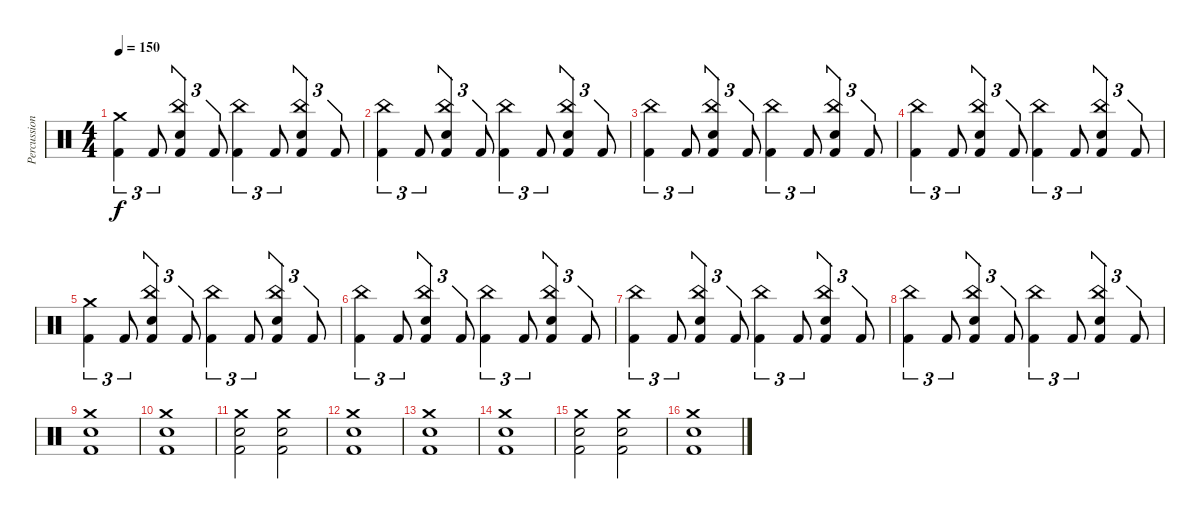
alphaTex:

\track ("Percussion" "Percussion") {instrument percussion}
\staff {score}
\articulation defaults
\ts (4 4)
\tempo 150
\clef neutral
\ks c
("Crash medium (hit)" "Kick (hit) 2").4{tu (3 2) dy f} "Kick (hit) 2".8{tu (3 2)} ("China (hit)" "Electric Snare (hit)" "Kick (hit) 2").4{tu (3 2)} "Kick (hit) 2".8{tu (3 2)} ("China (hit)" "Kick (hit) 2").4{tu (3 2)} "Kick (hit) 2".8{tu (3 2)} ("China (hit)" "Electric Snare (hit)" "Kick (hit) 2").4{tu (3 2)} "Kick (hit) 2".8{tu (3 2)} |
("China (hit)" "Kick (hit) 2").4{tu (3 2)} "Kick (hit) 2".8{tu (3 2)} ("China (hit)" "Electric Snare (hit)" "Kick (hit) 2").4{tu (3 2)} "Kick (hit) 2".8{tu (3 2)} ("China (hit)" "Kick (hit) 2").4{tu (3 2)} "Kick (hit) 2".8{tu (3 2)} ("China (hit)" "Electric Snare (hit)" "Kick (hit) 2").4{tu (3 2)} "Kick (hit) 2".8{tu (3 2)} |
("China (hit)" "Kick (hit) 2").4{tu (3 2)} "Kick (hit) 2".8{tu (3 2)} ("China (hit)" "Electric Snare (hit)" "Kick (hit) 2").4{tu (3 2)} "Kick (hit) 2".8{tu (3 2)} ("China (hit)" "Kick (hit) 2").4{tu (3 2)} "Kick (hit) 2".8{tu (3 2)} ("China (hit)" "Electric Snare (hit)" "Kick (hit) 2").4{tu (3 2)} "Kick (hit) 2".8{tu (3 2)} |
("China (hit)" "Kick (hit) 2").4{tu (3 2)} "Kick (hit) 2".8{tu (3 2)} ("China (hit)" "Electric Snare (hit)" "Kick (hit) 2").4{tu (3 2)} "Kick (hit) 2".8{tu (3 2)} ("China (hit)" "Kick (hit) 2").4{tu (3 2)} "Kick (hit) 2".8{tu (3 2)} ("China (hit)" "Electric Snare (hit)" "Kick (hit) 2").4{tu (3 2)} "Kick (hit) 2".8{tu (3 2)} |
("Crash medium (hit)" "Kick (hit) 2").4{tu (3 2)} "Kick (hit) 2".8{tu (3 2)} ("China (hit)" "Electric Snare (hit)" "Kick (hit) 2").4{tu (3 2)} "Kick (hit) 2".8{tu (3 2)} ("China (hit)" "Kick (hit) 2").4{tu (3 2)} "Kick (hit) 2".8{tu (3 2)} ("China (hit)" "Electric Snare (hit)" "Kick (hit) 2").4{tu (3 2)} "Kick (hit) 2".8{tu (3 2)} |
("China (hit)" "Kick (hit) 2").4{tu (3 2)} "Kick (hit) 2".8{tu (3 2)} ("China (hit)" "Electric Snare (hit)" "Kick (hit) 2").4{tu (3 2)} "Kick (hit) 2".8{tu (3 2)} ("China (hit)" "Kick (hit) 2").4{tu (3 2)} "Kick (hit) 2".8{tu (3 2)} ("China (hit)" "Electric Snare (hit)" "Kick (hit) 2").4{tu (3 2)} "Kick (hit) 2".8{tu (3 2)} |
("China (hit)" "Kick (hit) 2").4{tu (3 2)} "Kick (hit) 2".8{tu (3 2)} ("China (hit)" "Electric Snare (hit)" "Kick (hit) 2").4{tu (3 2)} "Kick (hit) 2".8{tu (3 2)} ("China (hit)" "Kick (hit) 2").4{tu (3 2)} "Kick (hit) 2".8{tu (3 2)} ("China (hit)" "Electric Snare (hit)" "Kick (hit) 2").4{tu (3 2)} "Kick (hit) 2".8{tu (3 2)} |
("China (hit)" "Kick (hit) 2").4{tu (3 2)} "Kick (hit) 2".8{tu (3 2)} ("China (hit)" "Electric Snare (hit)" "Kick (hit) 2").4{tu (3 2)} "Kick (hit) 2".8{tu (3 2)} ("China (hit)" "Kick (hit) 2").4{tu (3 2)} "Kick (hit) 2".8{tu (3 2)} ("China (hit)" "Electric Snare (hit)" "Kick (hit) 2").4{tu (3 2)} "Kick (hit) 2".8{tu (3 2)} |
("Crash medium (hit)" "Electric Snare (hit)" "Kick (hit) 2").1 |
("Crash medium (hit)" "Electric Snare (hit)" "Kick (hit) 2").1 |
("Crash medium (hit)" "Electric Snare (hit)" "Kick (hit) 2").2 ("Crash medium (hit)" "Electric Snare (hit)" "Kick (hit) 2").2 |
("Crash medium (hit)" "Electric Snare (hit)" "Kick (hit) 2").1 |
("Crash medium (hit)" "Electric Snare (hit)" "Kick (hit) 2").1 |
("Crash medium (hit)" "Electric Snare (hit)" "Kick (hit) 2").1 |
("Crash medium (hit)" "Electric Snare (hit)" "Kick (hit) 2").2 ("Crash medium (hit)" "Electric Snare (hit)" "Kick (hit) 2").2 |
("Crash medium (hit)" "Electric Snare (hit)" "Kick (hit) 2").1
